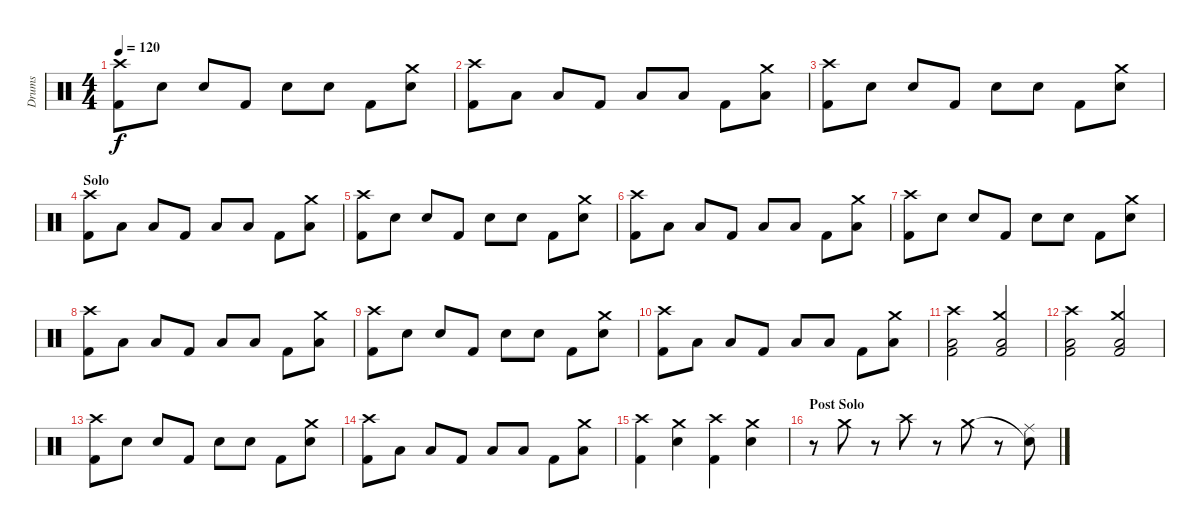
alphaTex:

\track ("Drums" "Drums") {instrument percussion}
\staff {score}
\articulation defaults
\ts (4 4)
\tempo 120
\clef neutral
\ks c
("Crash high (hit)" "Kick (hit) 2").8{dy f} "Snare (hit) 2".8 "Snare (hit) 2".8 "Kick (hit) 2".8 "Snare (hit) 2".8 "Snare (hit) 2".8 "Kick (hit) 2".8 ("Crash medium (hit)" "Snare (hit) 2").8 |
("Crash high (hit)" "Kick (hit) 2").8 "Low Floor Tom (hit)".8 "Low Floor Tom (hit)".8 "Kick (hit) 2".8 "Low Floor Tom (hit)".8 "Low Floor Tom (hit)".8 "Kick (hit) 2".8 ("Crash medium (hit)" "Low Tom (hit)").8 |
("Crash high (hit)" "Kick (hit) 2").8 "Snare (hit) 2".8 "Snare (hit) 2".8 "Kick (hit) 2".8 "Snare (hit) 2".8 "Snare (hit) 2".8 "Kick (hit) 2".8 ("Crash medium (hit)" "Snare (hit) 2").8 |
\section ("" "Solo")
("Crash high (hit)" "Kick (hit) 2").8 "Low Floor Tom (hit)".8 "Low Floor Tom (hit)".8 "Kick (hit) 2".8 "Low Floor Tom (hit)".8 "Low Floor Tom (hit)".8 "Kick (hit) 2".8 ("Crash medium (hit)" "Low Tom (hit)").8 |
("Crash high (hit)" "Kick (hit) 2").8 "Snare (hit) 2".8 "Snare (hit) 2".8 "Kick (hit) 2".8 "Snare (hit) 2".8 "Snare (hit) 2".8 "Kick (hit) 2".8 ("Crash medium (hit)" "Snare (hit) 2").8 |
("Crash high (hit)" "Kick (hit) 2").8 "Low Floor Tom (hit)".8 "Low Floor Tom (hit)".8 "Kick (hit) 2".8 "Low Floor Tom (hit)".8 "Low Floor Tom (hit)".8 "Kick (hit) 2".8 ("Crash medium (hit)" "Low Tom (hit)").8 |
("Crash high (hit)" "Kick (hit) 2").8 "Snare (hit) 2".8 "Snare (hit) 2".8 "Kick (hit) 2".8 "Snare (hit) 2".8 "Snare (hit) 2".8 "Kick (hit) 2".8 ("Crash medium (hit)" "Snare (hit) 2").8 |
("Crash high (hit)" "Kick (hit) 2").8 "Low Floor Tom (hit)".8 "Low Floor Tom (hit)".8 "Kick (hit) 2".8 "Low Floor Tom (hit)".8 "Low Floor Tom (hit)".8 "Kick (hit) 2".8 ("Crash medium (hit)" "Low Tom (hit)").8 |
("Crash high (hit)" "Kick (hit) 2").8 "Snare (hit) 2".8 "Snare (hit) 2".8 "Kick (hit) 2".8 "Snare (hit) 2".8 "Snare (hit) 2".8 "Kick (hit) 2".8 ("Crash medium (hit)" "Snare (hit) 2").8 |
("Crash high (hit)" "Kick (hit) 2").8 "Low Floor Tom (hit)".8 "Low Floor Tom (hit)".8 "Kick (hit) 2".8 "Low Floor Tom (hit)".8 "Low Floor Tom (hit)".8 "Kick (hit) 2".8 ("Crash medium (hit)" "Low Tom (hit)").8 |
("Crash high (hit)" "Low Floor Tom (hit)" "Kick (hit) 2").2 ("Crash medium (hit)" "Low Tom (hit)" "Kick (hit) 2").2 |
("Crash high (hit)" "Low Floor Tom (hit)" "Kick (hit) 2").2 ("Crash medium (hit)" "Low Tom (hit)" "Kick (hit) 2").2 |
("Crash high (hit)" "Kick (hit) 2").8 "Snare (hit) 2".8 "Snare (hit) 2".8 "Kick (hit) 2".8 "Snare (hit) 2".8 "Snare (hit) 2".8 "Kick (hit) 2".8 ("Crash medium (hit)" "Snare (hit) 2").8 |
("Crash high (hit)" "Kick (hit) 2").8 "Low Floor Tom (hit)".8 "Low Floor Tom (hit)".8 "Kick (hit) 2".8 "Low Floor Tom (hit)".8 "Low Floor Tom (hit)".8 "Kick (hit) 2".8 ("Crash medium (hit)" "Low Tom (hit)").8 |
("Crash high (hit)" "Kick (hit) 2").4 ("Crash medium (hit)" "Snare (hit) 2").4 ("Crash high (hit)" "Kick (hit) 2").4 ("Crash medium (hit)" "Snare (hit) 2").4 |
\section ("" "Post Solo")
r.8 "Crash medium (hit)".8 r.8 "Crash high (hit)".8 r.8 "Crash medium (hit)".8 r.8 ("Snare (hit)"{t} "Ride (middle)").8
